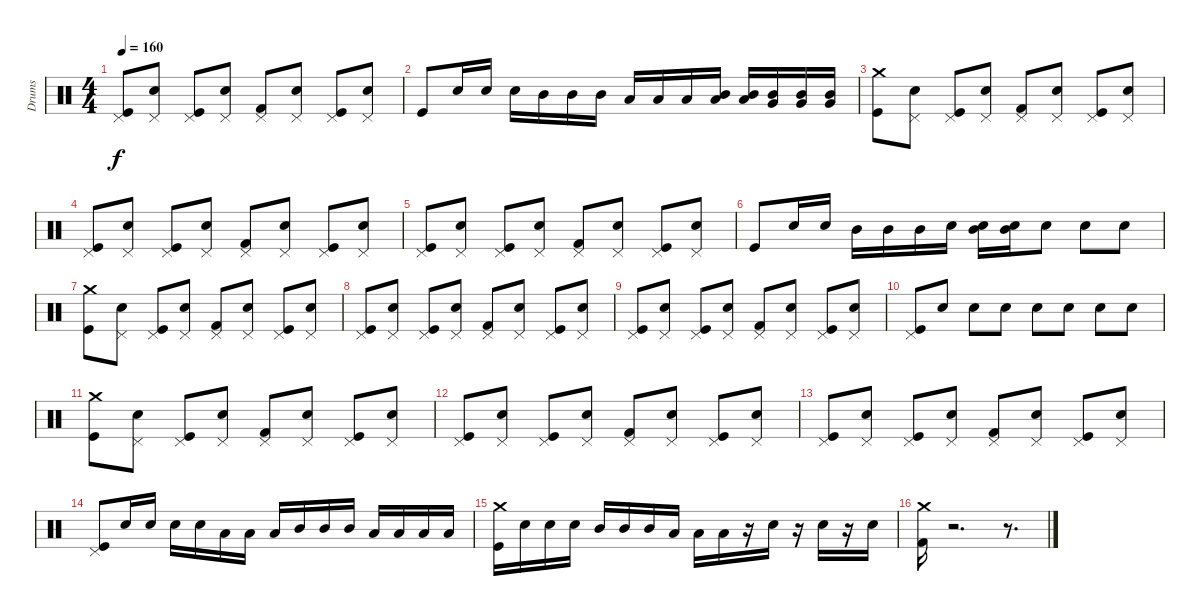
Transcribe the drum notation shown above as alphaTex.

\track ("Drums" "Drums") {instrument percussion}
\staff {score}
\articulation defaults
\ts (4 4)
\tempo 160
\clef neutral
\ks c
("Pedal Hi-Hat (hit)" "Kick (hit)").8{dy f} ("Pedal Hi-Hat (hit)" "Electric Snare (hit)").8 ("Pedal Hi-Hat (hit)" "Kick (hit)").8 ("Pedal Hi-Hat (hit)" "Electric Snare (hit)").8 ("Pedal Hi-Hat (hit)" "Kick (hit) 2").8 ("Pedal Hi-Hat (hit)" "Electric Snare (hit)").8 ("Pedal Hi-Hat (hit)" "Kick (hit)").8 ("Pedal Hi-Hat (hit)" "Electric Snare (hit)").8 |
"Kick (hit)".8 "Electric Snare (hit)".16 "Electric Snare (hit)".16 "Electric Snare (hit)".16 "Mid Tom (hit)".16 "Mid Tom (hit)".16 "Mid Tom (hit)".16 "Low Tom (hit)".16 "Low Tom (hit)".16 "Low Tom (hit)".16 ("Low Tom (hit)" "Mid Tom (hit)").16 ("Low Tom (hit)" "Mid Tom (hit)").16 ("Very Low Tom (hit)" "Mid Tom (hit)").16 ("Very Low Tom (hit)" "Mid Tom (hit)").16 ("Very Low Tom (hit)" "Mid Tom (hit)").16 |
("Crash medium (hit)" "Kick (hit)").8 ("Pedal Hi-Hat (hit)" "Electric Snare (hit)").8 ("Pedal Hi-Hat (hit)" "Kick (hit)").8 ("Pedal Hi-Hat (hit)" "Electric Snare (hit)").8 ("Pedal Hi-Hat (hit)" "Kick (hit) 2").8 ("Pedal Hi-Hat (hit)" "Electric Snare (hit)").8 ("Pedal Hi-Hat (hit)" "Kick (hit)").8 ("Pedal Hi-Hat (hit)" "Electric Snare (hit)").8 |
("Pedal Hi-Hat (hit)" "Kick (hit)").8 ("Pedal Hi-Hat (hit)" "Electric Snare (hit)").8 ("Pedal Hi-Hat (hit)" "Kick (hit)").8 ("Pedal Hi-Hat (hit)" "Electric Snare (hit)").8 ("Pedal Hi-Hat (hit)" "Kick (hit) 2").8 ("Pedal Hi-Hat (hit)" "Electric Snare (hit)").8 ("Pedal Hi-Hat (hit)" "Kick (hit)").8 ("Pedal Hi-Hat (hit)" "Electric Snare (hit)").8 |
("Pedal Hi-Hat (hit)" "Kick (hit)").8 ("Pedal Hi-Hat (hit)" "Electric Snare (hit)").8 ("Pedal Hi-Hat (hit)" "Kick (hit)").8 ("Pedal Hi-Hat (hit)" "Electric Snare (hit)").8 ("Pedal Hi-Hat (hit)" "Kick (hit) 2").8 ("Pedal Hi-Hat (hit)" "Electric Snare (hit)").8 ("Pedal Hi-Hat (hit)" "Kick (hit)").8 ("Pedal Hi-Hat (hit)" "Electric Snare (hit)").8 |
"Kick (hit)".8 "Electric Snare (hit)".16 "Electric Snare (hit)".16 "Mid Tom (hit)".16 "Mid Tom (hit)".16 "Mid Tom (hit)".16 "Electric Snare (hit)".16 ("Mid Tom (hit)" "Electric Snare (hit)").16 ("Electric Snare (hit)" "Mid Tom (hit)").16 "Electric Snare (hit)".8 "Electric Snare (hit)".8 "Electric Snare (hit)".8 |
("Crash medium (hit)" "Kick (hit)").8 ("Pedal Hi-Hat (hit)" "Electric Snare (hit)").8 ("Pedal Hi-Hat (hit)" "Kick (hit)").8 ("Pedal Hi-Hat (hit)" "Electric Snare (hit)").8 ("Pedal Hi-Hat (hit)" "Kick (hit) 2").8 ("Pedal Hi-Hat (hit)" "Electric Snare (hit)").8 ("Pedal Hi-Hat (hit)" "Kick (hit)").8 ("Pedal Hi-Hat (hit)" "Electric Snare (hit)").8 |
("Pedal Hi-Hat (hit)" "Kick (hit)").8 ("Pedal Hi-Hat (hit)" "Electric Snare (hit)").8 ("Pedal Hi-Hat (hit)" "Kick (hit)").8 ("Pedal Hi-Hat (hit)" "Electric Snare (hit)").8 ("Pedal Hi-Hat (hit)" "Kick (hit) 2").8 ("Pedal Hi-Hat (hit)" "Electric Snare (hit)").8 ("Pedal Hi-Hat (hit)" "Kick (hit)").8 ("Pedal Hi-Hat (hit)" "Electric Snare (hit)").8 |
("Pedal Hi-Hat (hit)" "Kick (hit)").8 ("Pedal Hi-Hat (hit)" "Electric Snare (hit)").8 ("Pedal Hi-Hat (hit)" "Kick (hit)").8 ("Pedal Hi-Hat (hit)" "Electric Snare (hit)").8 ("Pedal Hi-Hat (hit)" "Kick (hit) 2").8 ("Pedal Hi-Hat (hit)" "Electric Snare (hit)").8 ("Pedal Hi-Hat (hit)" "Kick (hit)").8 ("Pedal Hi-Hat (hit)" "Electric Snare (hit)").8 |
("Pedal Hi-Hat (hit)" "Kick (hit)").8 "Electric Snare (hit)".8 "Electric Snare (hit)".8 "Electric Snare (hit)".8 "Electric Snare (hit)".8 "Electric Snare (hit)".8 "Electric Snare (hit)".8 "Electric Snare (hit)".8 |
("Crash medium (hit)" "Kick (hit)").8 ("Pedal Hi-Hat (hit)" "Electric Snare (hit)").8 ("Pedal Hi-Hat (hit)" "Kick (hit)").8 ("Pedal Hi-Hat (hit)" "Electric Snare (hit)").8 ("Pedal Hi-Hat (hit)" "Kick (hit) 2").8 ("Pedal Hi-Hat (hit)" "Electric Snare (hit)").8 ("Pedal Hi-Hat (hit)" "Kick (hit)").8 ("Pedal Hi-Hat (hit)" "Electric Snare (hit)").8 |
("Pedal Hi-Hat (hit)" "Kick (hit)").8 ("Pedal Hi-Hat (hit)" "Electric Snare (hit)").8 ("Pedal Hi-Hat (hit)" "Kick (hit)").8 ("Pedal Hi-Hat (hit)" "Electric Snare (hit)").8 ("Pedal Hi-Hat (hit)" "Kick (hit) 2").8 ("Pedal Hi-Hat (hit)" "Electric Snare (hit)").8 ("Pedal Hi-Hat (hit)" "Kick (hit)").8 ("Pedal Hi-Hat (hit)" "Electric Snare (hit)").8 |
("Pedal Hi-Hat (hit)" "Kick (hit)").8 ("Pedal Hi-Hat (hit)" "Electric Snare (hit)").8 ("Pedal Hi-Hat (hit)" "Kick (hit)").8 ("Pedal Hi-Hat (hit)" "Electric Snare (hit)").8 ("Pedal Hi-Hat (hit)" "Kick (hit) 2").8 ("Pedal Hi-Hat (hit)" "Electric Snare (hit)").8 ("Pedal Hi-Hat (hit)" "Kick (hit)").8 ("Pedal Hi-Hat (hit)" "Electric Snare (hit)").8 |
("Pedal Hi-Hat (hit)" "Kick (hit)").8 "Electric Snare (hit)".16 "Electric Snare (hit)".16 "Electric Snare (hit)".16 "Electric Snare (hit)".16 "Low Tom (hit)".16 "Low Tom (hit)".16 "Low Tom (hit)".16 "Mid Tom (hit)".16 "Mid Tom (hit)".16 "Mid Tom (hit)".16 "Low Tom (hit)".16 "Low Tom (hit)".16 "Low Tom (hit)".16 "Low Tom (hit)".16 |
("Crash medium (hit)" "Kick (hit)").16 "Electric Snare (hit)".16 "Electric Snare (hit)".16 "Electric Snare (hit)".16 "Mid Tom (hit)".16 "Mid Tom (hit)".16 "Mid Tom (hit)".16 "Low Tom (hit)".16 "Low Tom (hit)".16 "Low Tom (hit)".16 r.16 "Electric Snare (hit)".16 r.16 "Electric Snare (hit)".16 r.16 "Electric Snare (hit)".16 |
("Crash medium (hit)" "Kick (hit) 2").16 r.2{d} r.8{d}
